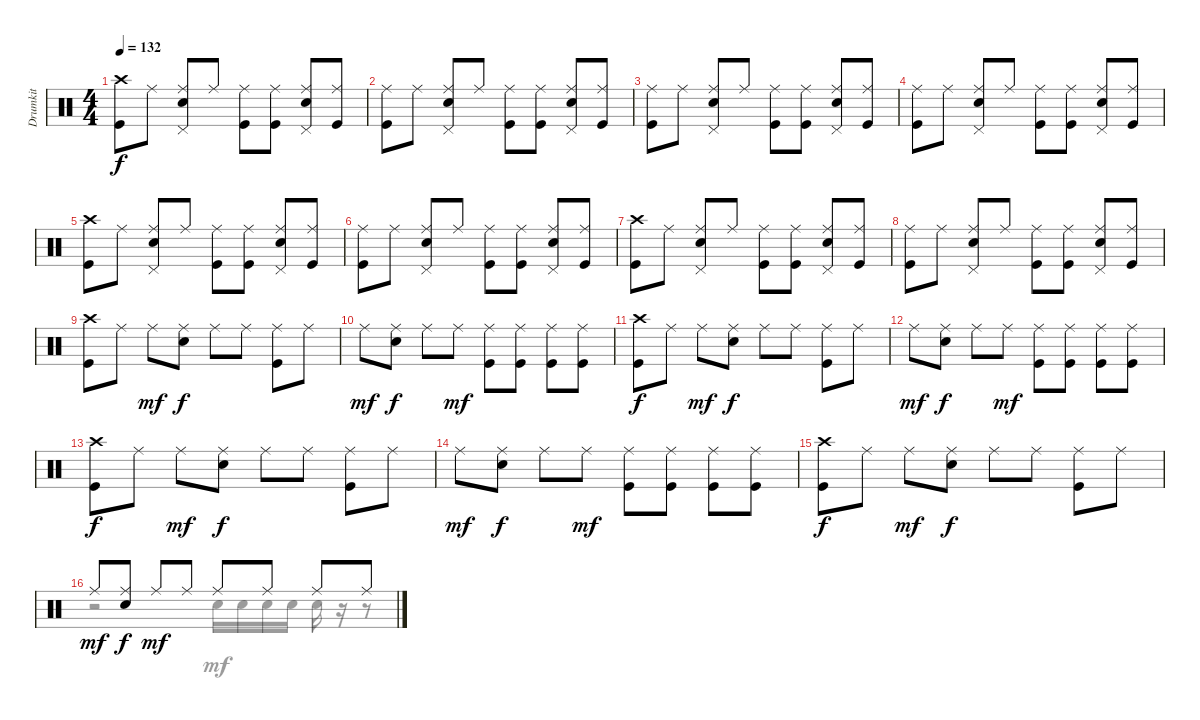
\track ("Drumkit" "Drumkit") {instrument percussion}
\staff {score}
\articulation defaults
\voice
\ts (4 4)
\tempo 132
\clef neutral
\ks c
("Kick (hit)" "Crash high (hit)").8{dy f} "Ride (middle)".8 ("Snare (hit) 2" "Pedal Hi-Hat (hit)" "Ride (middle)").8 "Ride (middle)".8 ("Kick (hit)" "Ride (middle)").8 ("Kick (hit)" "Ride (middle)").8 ("Snare (hit) 2" "Pedal Hi-Hat (hit)" "Ride (middle)").8 ("Kick (hit)" "Ride (middle)").8 |
("Kick (hit)" "Ride (middle)").8 "Ride (middle)".8 ("Snare (hit) 2" "Pedal Hi-Hat (hit)" "Ride (middle)").8 "Ride (middle)".8 ("Kick (hit)" "Ride (middle)").8 ("Kick (hit)" "Ride (middle)").8 ("Snare (hit) 2" "Pedal Hi-Hat (hit)" "Ride (middle)").8 ("Kick (hit)" "Ride (middle)").8 |
("Kick (hit)" "Ride (middle)").8 "Ride (middle)".8 ("Snare (hit) 2" "Pedal Hi-Hat (hit)" "Ride (middle)").8 "Ride (middle)".8 ("Kick (hit)" "Ride (middle)").8 ("Kick (hit)" "Ride (middle)").8 ("Snare (hit) 2" "Pedal Hi-Hat (hit)" "Ride (middle)").8 ("Kick (hit)" "Ride (middle)").8 |
("Kick (hit)" "Ride (middle)").8 "Ride (middle)".8 ("Snare (hit) 2" "Pedal Hi-Hat (hit)" "Ride (middle)").8 "Ride (middle)".8 ("Kick (hit)" "Ride (middle)").8 ("Kick (hit)" "Ride (middle)").8 ("Snare (hit) 2" "Pedal Hi-Hat (hit)" "Ride (middle)").8 ("Kick (hit)" "Ride (middle)").8 |
("Kick (hit)" "Crash high (hit)").8 "Ride (middle)".8 ("Snare (hit) 2" "Pedal Hi-Hat (hit)" "Ride (middle)").8 "Ride (middle)".8 ("Kick (hit)" "Ride (middle)").8 ("Kick (hit)" "Ride (middle)").8 ("Snare (hit) 2" "Pedal Hi-Hat (hit)" "Ride (middle)").8 ("Kick (hit)" "Ride (middle)").8 |
("Kick (hit)" "Ride (middle)").8 "Ride (middle)".8 ("Snare (hit) 2" "Pedal Hi-Hat (hit)" "Ride (middle)").8 "Ride (middle)".8 ("Kick (hit)" "Ride (middle)").8 ("Kick (hit)" "Ride (middle)").8 ("Snare (hit) 2" "Pedal Hi-Hat (hit)" "Ride (middle)").8 ("Kick (hit)" "Ride (middle)").8 |
("Kick (hit)" "Crash high (hit)").8 "Ride (middle)".8 ("Snare (hit) 2" "Pedal Hi-Hat (hit)" "Ride (middle)").8 "Ride (middle)".8 ("Kick (hit)" "Ride (middle)").8 ("Kick (hit)" "Ride (middle)").8 ("Snare (hit) 2" "Pedal Hi-Hat (hit)" "Ride (middle)").8 ("Kick (hit)" "Ride (middle)").8 |
("Kick (hit)" "Ride (middle)").8 "Ride (middle)".8 ("Snare (hit) 2" "Pedal Hi-Hat (hit)" "Ride (middle)").8 "Ride (middle)".8 ("Kick (hit)" "Ride (middle)").8 ("Kick (hit)" "Ride (middle)").8 ("Snare (hit) 2" "Pedal Hi-Hat (hit)" "Ride (middle)").8 ("Kick (hit)" "Ride (middle)").8 |
("Crash high (hit)" "Kick (hit)").8 "Ride (middle)".8 "Ride (middle)".8{dy mf} ("Ride (middle)" "Snare (hit) 2").8{dy f} "Ride (middle)".8 "Ride (middle)".8 ("Kick (hit)" "Ride (middle)").8 "Ride (middle)".8 |
"Ride (middle)".8{dy mf} ("Ride (middle)" "Snare (hit) 2").8{dy f} "Ride (middle)".8 "Ride (middle)".8{dy mf} ("Ride (middle)" "Kick (hit)").8 ("Ride (middle)" "Kick (hit)").8 ("Ride (middle)" "Kick (hit)").8 ("Ride (middle)" "Kick (hit)").8 |
("Crash high (hit)" "Kick (hit)").8{dy f} "Ride (middle)".8 "Ride (middle)".8{dy mf} ("Ride (middle)" "Snare (hit) 2").8{dy f} "Ride (middle)".8 "Ride (middle)".8 ("Kick (hit)" "Ride (middle)").8 "Ride (middle)".8 |
"Ride (middle)".8{dy mf} ("Ride (middle)" "Snare (hit) 2").8{dy f} "Ride (middle)".8 "Ride (middle)".8{dy mf} ("Ride (middle)" "Kick (hit)").8 ("Ride (middle)" "Kick (hit)").8 ("Ride (middle)" "Kick (hit)").8 ("Ride (middle)" "Kick (hit)").8 |
("Crash high (hit)" "Kick (hit)").8{dy f} "Ride (middle)".8 "Ride (middle)".8{dy mf} ("Ride (middle)" "Snare (hit) 2").8{dy f} "Ride (middle)".8 "Ride (middle)".8 ("Kick (hit)" "Ride (middle)").8 "Ride (middle)".8 |
"Ride (middle)".8{dy mf} ("Ride (middle)" "Snare (hit) 2").8{dy f} "Ride (middle)".8 "Ride (middle)".8{dy mf} ("Ride (middle)" "Kick (hit)").8 ("Ride (middle)" "Kick (hit)").8 ("Ride (middle)" "Kick (hit)").8 ("Ride (middle)" "Kick (hit)").8 |
("Crash high (hit)" "Kick (hit)").8{dy f} "Ride (middle)".8 "Ride (middle)".8{dy mf} ("Ride (middle)" "Snare (hit) 2").8{dy f} "Ride (middle)".8 "Ride (middle)".8 ("Kick (hit)" "Ride (middle)").8 "Ride (middle)".8 |
"Ride (middle)".8{dy mf} ("Ride (middle)" "Snare (hit) 2").8{dy f} "Ride (middle)".8{dy mf} "Ride (middle)".8 "Ride (middle)".8 "Ride (middle)".8 "Ride (middle)".8 "Ride (middle)".8
\voice
\clef neutral
\ottava regular
\simile none
\ks c
|
|
|
|
|
|
|
|
|
|
|
|
|
|
|
r.2 "Snare (hit) 2".16 "Snare (hit) 2".16 "Snare (hit) 2".16 "Snare (hit) 2".16 "Snare (hit) 2".16 r.16 r.8
